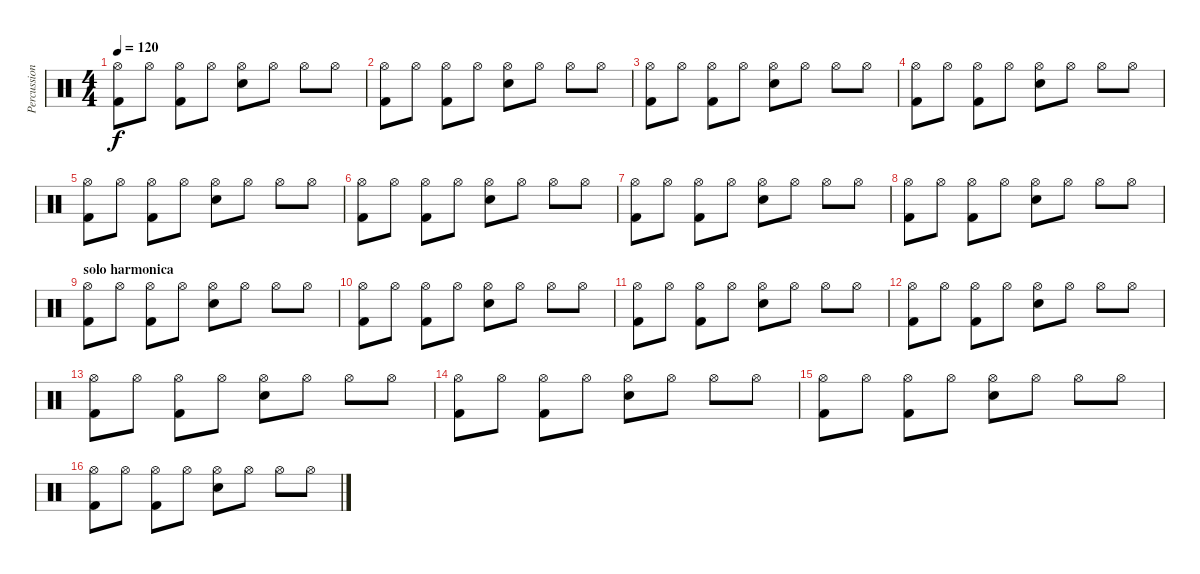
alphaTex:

\track ("Percussions" "Percussion") {instrument percussion}
\staff {score}
\articulation defaults
\ts (4 4)
\tempo 120
\clef neutral
\ks c
("Hi-Hat (open)" "Kick (hit) 2").8{dy f} "Hi-Hat (open)".8 ("Hi-Hat (open)" "Kick (hit) 2").8 "Hi-Hat (open)".8 ("Hi-Hat (open)" "Electric Snare (hit)").8 "Hi-Hat (open)".8 "Hi-Hat (open)".8 "Hi-Hat (open)".8 |
("Hi-Hat (open)" "Kick (hit) 2").8 "Hi-Hat (open)".8 ("Hi-Hat (open)" "Kick (hit) 2").8 "Hi-Hat (open)".8 ("Hi-Hat (open)" "Electric Snare (hit)").8 "Hi-Hat (open)".8 "Hi-Hat (open)".8 "Hi-Hat (open)".8 |
("Hi-Hat (open)" "Kick (hit) 2").8 "Hi-Hat (open)".8 ("Hi-Hat (open)" "Kick (hit) 2").8 "Hi-Hat (open)".8 ("Hi-Hat (open)" "Electric Snare (hit)").8 "Hi-Hat (open)".8 "Hi-Hat (open)".8 "Hi-Hat (open)".8 |
("Hi-Hat (open)" "Kick (hit) 2").8 "Hi-Hat (open)".8 ("Hi-Hat (open)" "Kick (hit) 2").8 "Hi-Hat (open)".8 ("Hi-Hat (open)" "Electric Snare (hit)").8 "Hi-Hat (open)".8 "Hi-Hat (open)".8 "Hi-Hat (open)".8 |
("Hi-Hat (open)" "Kick (hit) 2").8 "Hi-Hat (open)".8 ("Hi-Hat (open)" "Kick (hit) 2").8 "Hi-Hat (open)".8 ("Hi-Hat (open)" "Electric Snare (hit)").8 "Hi-Hat (open)".8 "Hi-Hat (open)".8 "Hi-Hat (open)".8 |
("Hi-Hat (open)" "Kick (hit) 2").8 "Hi-Hat (open)".8 ("Hi-Hat (open)" "Kick (hit) 2").8 "Hi-Hat (open)".8 ("Hi-Hat (open)" "Electric Snare (hit)").8 "Hi-Hat (open)".8 "Hi-Hat (open)".8 "Hi-Hat (open)".8 |
("Hi-Hat (open)" "Kick (hit) 2").8 "Hi-Hat (open)".8 ("Hi-Hat (open)" "Kick (hit) 2").8 "Hi-Hat (open)".8 ("Hi-Hat (open)" "Electric Snare (hit)").8 "Hi-Hat (open)".8 "Hi-Hat (open)".8 "Hi-Hat (open)".8 |
("Hi-Hat (open)" "Kick (hit) 2").8 "Hi-Hat (open)".8 ("Hi-Hat (open)" "Kick (hit) 2").8 "Hi-Hat (open)".8 ("Hi-Hat (open)" "Electric Snare (hit)").8 "Hi-Hat (open)".8 "Hi-Hat (open)".8 "Hi-Hat (open)".8 |
\section ("" "solo harmonica")
("Hi-Hat (open)" "Kick (hit) 2").8 "Hi-Hat (open)".8 ("Hi-Hat (open)" "Kick (hit) 2").8 "Hi-Hat (open)".8 ("Hi-Hat (open)" "Electric Snare (hit)").8 "Hi-Hat (open)".8 "Hi-Hat (open)".8 "Hi-Hat (open)".8 |
("Hi-Hat (open)" "Kick (hit) 2").8 "Hi-Hat (open)".8 ("Hi-Hat (open)" "Kick (hit) 2").8 "Hi-Hat (open)".8 ("Hi-Hat (open)" "Electric Snare (hit)").8 "Hi-Hat (open)".8 "Hi-Hat (open)".8 "Hi-Hat (open)".8 |
("Hi-Hat (open)" "Kick (hit) 2").8 "Hi-Hat (open)".8 ("Hi-Hat (open)" "Kick (hit) 2").8 "Hi-Hat (open)".8 ("Hi-Hat (open)" "Electric Snare (hit)").8 "Hi-Hat (open)".8 "Hi-Hat (open)".8 "Hi-Hat (open)".8 |
("Hi-Hat (open)" "Kick (hit) 2").8 "Hi-Hat (open)".8 ("Hi-Hat (open)" "Kick (hit) 2").8 "Hi-Hat (open)".8 ("Hi-Hat (open)" "Electric Snare (hit)").8 "Hi-Hat (open)".8 "Hi-Hat (open)".8 "Hi-Hat (open)".8 |
("Hi-Hat (open)" "Kick (hit) 2").8 "Hi-Hat (open)".8 ("Hi-Hat (open)" "Kick (hit) 2").8 "Hi-Hat (open)".8 ("Hi-Hat (open)" "Electric Snare (hit)").8 "Hi-Hat (open)".8 "Hi-Hat (open)".8 "Hi-Hat (open)".8 |
("Hi-Hat (open)" "Kick (hit) 2").8 "Hi-Hat (open)".8 ("Hi-Hat (open)" "Kick (hit) 2").8 "Hi-Hat (open)".8 ("Hi-Hat (open)" "Electric Snare (hit)").8 "Hi-Hat (open)".8 "Hi-Hat (open)".8 "Hi-Hat (open)".8 |
("Hi-Hat (open)" "Kick (hit) 2").8 "Hi-Hat (open)".8 ("Hi-Hat (open)" "Kick (hit) 2").8 "Hi-Hat (open)".8 ("Hi-Hat (open)" "Electric Snare (hit)").8 "Hi-Hat (open)".8 "Hi-Hat (open)".8 "Hi-Hat (open)".8 |
("Hi-Hat (open)" "Kick (hit) 2").8 "Hi-Hat (open)".8 ("Hi-Hat (open)" "Kick (hit) 2").8 "Hi-Hat (open)".8 ("Hi-Hat (open)" "Electric Snare (hit)").8 "Hi-Hat (open)".8 "Hi-Hat (open)".8 "Hi-Hat (open)".8
